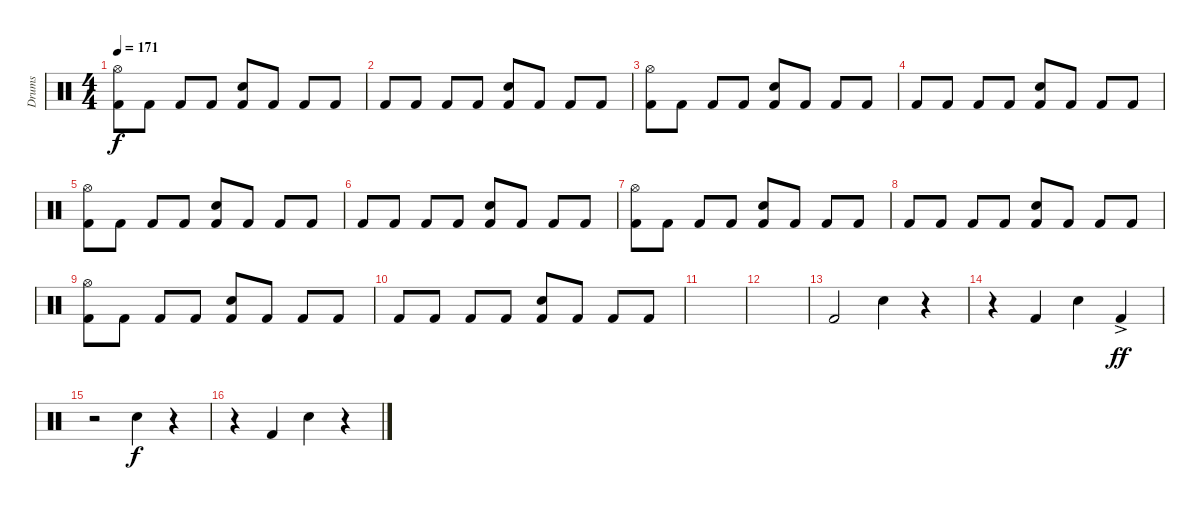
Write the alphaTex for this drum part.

\track ("Drums" "Drums") {instrument percussion}
\staff {score}
\articulation defaults
\ts (4 4)
\tempo 171
\clef neutral
\ks c
("Hi-Hat (open)" "Kick (hit) 2").8{dy f} "Kick (hit) 2".8 "Kick (hit) 2".8 "Kick (hit) 2".8 ("Snare (hit) 2" "Kick (hit) 2").8 "Kick (hit) 2".8 "Kick (hit) 2".8 "Kick (hit) 2".8 |
"Kick (hit) 2".8 "Kick (hit) 2".8 "Kick (hit) 2".8 "Kick (hit) 2".8 ("Snare (hit) 2" "Kick (hit) 2").8 "Kick (hit) 2".8 "Kick (hit) 2".8 "Kick (hit) 2".8 |
("Hi-Hat (open)" "Kick (hit) 2").8 "Kick (hit) 2".8 "Kick (hit) 2".8 "Kick (hit) 2".8 ("Snare (hit) 2" "Kick (hit) 2").8 "Kick (hit) 2".8 "Kick (hit) 2".8 "Kick (hit) 2".8 |
"Kick (hit) 2".8 "Kick (hit) 2".8 "Kick (hit) 2".8 "Kick (hit) 2".8 ("Snare (hit) 2" "Kick (hit) 2").8 "Kick (hit) 2".8 "Kick (hit) 2".8 "Kick (hit) 2".8 |
("Hi-Hat (open)" "Kick (hit) 2").8 "Kick (hit) 2".8 "Kick (hit) 2".8 "Kick (hit) 2".8 ("Snare (hit) 2" "Kick (hit) 2").8 "Kick (hit) 2".8 "Kick (hit) 2".8 "Kick (hit) 2".8 |
"Kick (hit) 2".8 "Kick (hit) 2".8 "Kick (hit) 2".8 "Kick (hit) 2".8 ("Snare (hit) 2" "Kick (hit) 2").8 "Kick (hit) 2".8 "Kick (hit) 2".8 "Kick (hit) 2".8 |
("Hi-Hat (open)" "Kick (hit) 2").8 "Kick (hit) 2".8 "Kick (hit) 2".8 "Kick (hit) 2".8 ("Snare (hit) 2" "Kick (hit) 2").8 "Kick (hit) 2".8 "Kick (hit) 2".8 "Kick (hit) 2".8 |
"Kick (hit) 2".8 "Kick (hit) 2".8 "Kick (hit) 2".8 "Kick (hit) 2".8 ("Snare (hit) 2" "Kick (hit) 2").8 "Kick (hit) 2".8 "Kick (hit) 2".8 "Kick (hit) 2".8 |
("Hi-Hat (open)" "Kick (hit) 2").8 "Kick (hit) 2".8 "Kick (hit) 2".8 "Kick (hit) 2".8 ("Snare (hit) 2" "Kick (hit) 2").8 "Kick (hit) 2".8 "Kick (hit) 2".8 "Kick (hit) 2".8 |
"Kick (hit) 2".8 "Kick (hit) 2".8 "Kick (hit) 2".8 "Kick (hit) 2".8 ("Snare (hit) 2" "Kick (hit) 2").8 "Kick (hit) 2".8 "Kick (hit) 2".8 "Kick (hit) 2".8 |
|
|
"Kick (hit) 2".2 "Snare (hit) 2".4 r.4 |
r.4 "Kick (hit) 2".4 "Snare (hit) 2".4 "Kick (hit) 2"{ac}.4{dy ff} |
r.2 "Snare (hit) 2".4{dy f} r.4 |
r.4 "Kick (hit) 2".4 "Snare (hit) 2".4 r.4
